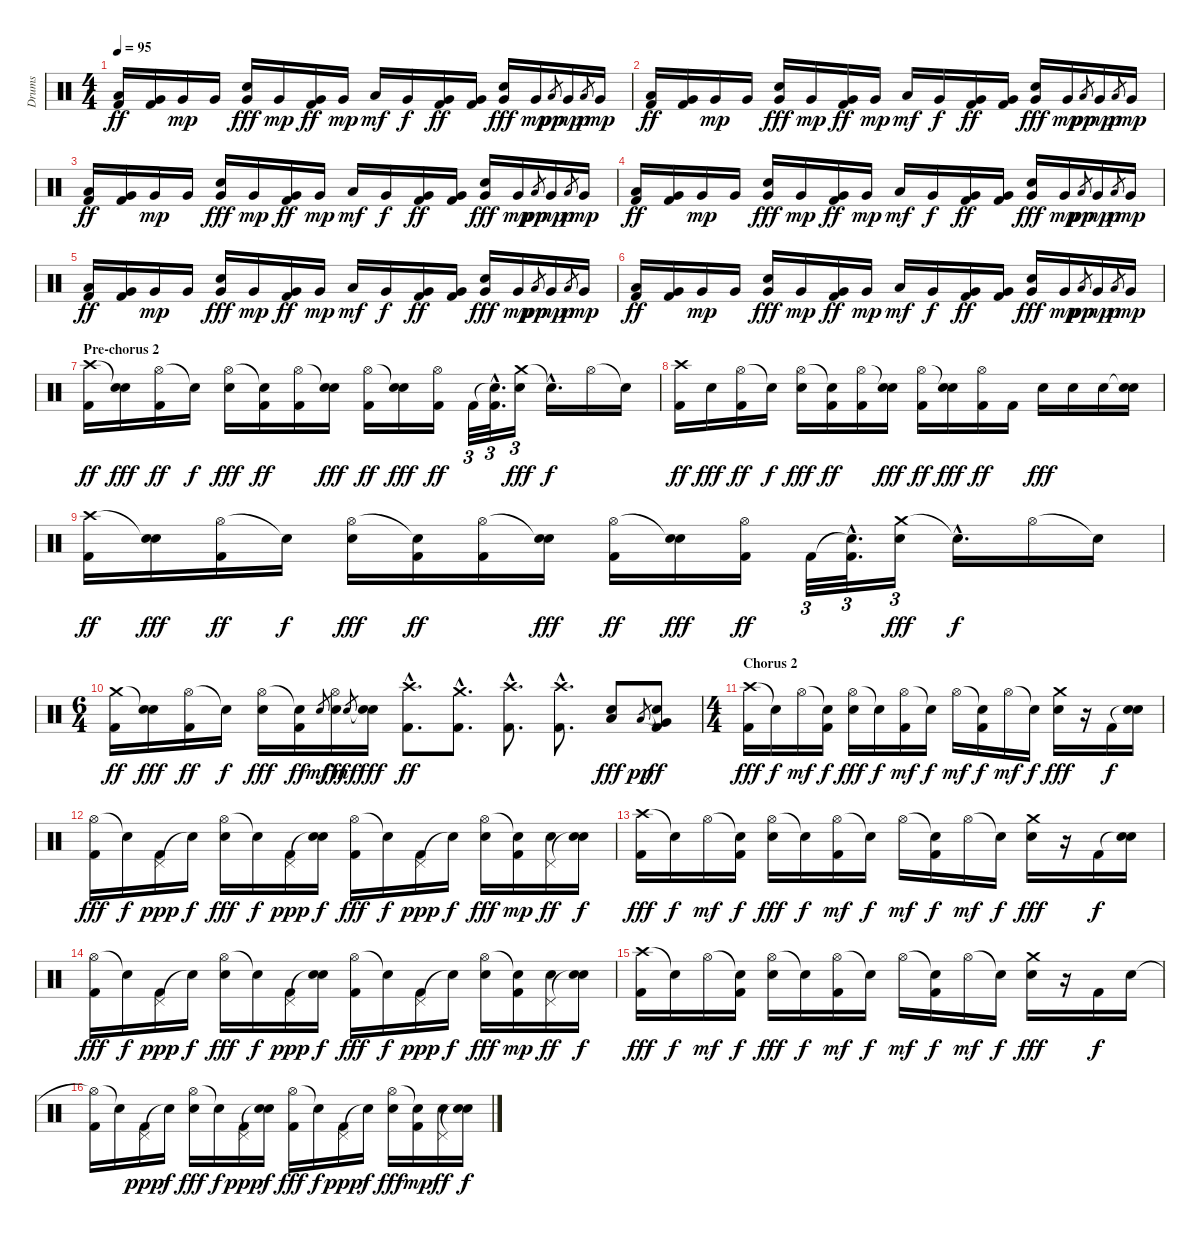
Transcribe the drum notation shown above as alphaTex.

\track ("Drums" "Drums") {instrument percussion}
\staff {score}
\articulation defaults
\ts (4 4)
\tempo 95
\clef neutral
\ks c
("Low Tom (hit)" "Kick (hit) 2").16{dy ff} ("Very Low Tom (hit)" "Kick (hit) 2").16 "Very Low Tom (hit)".16{dy mp} "Very Low Tom (hit)".16 ("Very Low Tom (hit)" "Electric Snare (hit)").16{dy fff} "Very Low Tom (hit)".16{dy mp} ("Very Low Tom (hit)" "Kick (hit) 2").16{dy ff} "Very Low Tom (hit)".16{dy mp} "Low Tom (hit)".16{dy mf} "Very Low Tom (hit)".16{dy f} ("Very Low Tom (hit)" "Kick (hit) 2").16{dy ff} ("Very Low Tom (hit)" "Kick (hit) 2").16 ("Very Low Tom (hit)" "Electric Snare (hit)").16{dy fff} "Very Low Tom (hit)".16{dy mp} "Low Tom (hit)".8{gr dy pp} "Very Low Tom (hit)".16{dy mp} "Low Tom (hit)".8{gr dy p} "Very Low Tom (hit)".16{dy mp} |
("Low Tom (hit)" "Kick (hit) 2").16{dy ff} ("Very Low Tom (hit)" "Kick (hit) 2").16 "Very Low Tom (hit)".16{dy mp} "Very Low Tom (hit)".16 ("Very Low Tom (hit)" "Electric Snare (hit)").16{dy fff} "Very Low Tom (hit)".16{dy mp} ("Very Low Tom (hit)" "Kick (hit) 2").16{dy ff} "Very Low Tom (hit)".16{dy mp} "Low Tom (hit)".16{dy mf} "Very Low Tom (hit)".16{dy f} ("Very Low Tom (hit)" "Kick (hit) 2").16{dy ff} ("Very Low Tom (hit)" "Kick (hit) 2").16 ("Very Low Tom (hit)" "Electric Snare (hit)").16{dy fff} "Very Low Tom (hit)".16{dy mp} "Low Tom (hit)".8{gr dy pp} "Very Low Tom (hit)".16{dy mp} "Low Tom (hit)".8{gr dy p} "Very Low Tom (hit)".16{dy mp} |
("Low Tom (hit)" "Kick (hit) 2").16{dy ff} ("Very Low Tom (hit)" "Kick (hit) 2").16 "Very Low Tom (hit)".16{dy mp} "Very Low Tom (hit)".16 ("Very Low Tom (hit)" "Electric Snare (hit)").16{dy fff} "Very Low Tom (hit)".16{dy mp} ("Very Low Tom (hit)" "Kick (hit) 2").16{dy ff} "Very Low Tom (hit)".16{dy mp} "Low Tom (hit)".16{dy mf} "Very Low Tom (hit)".16{dy f} ("Very Low Tom (hit)" "Kick (hit) 2").16{dy ff} ("Very Low Tom (hit)" "Kick (hit) 2").16 ("Very Low Tom (hit)" "Electric Snare (hit)").16{dy fff} "Very Low Tom (hit)".16{dy mp} "Low Tom (hit)".8{gr dy pp} "Very Low Tom (hit)".16{dy mp} "Low Tom (hit)".8{gr dy p} "Very Low Tom (hit)".16{dy mp} |
("Low Tom (hit)" "Kick (hit) 2").16{dy ff} ("Very Low Tom (hit)" "Kick (hit) 2").16 "Very Low Tom (hit)".16{dy mp} "Very Low Tom (hit)".16 ("Very Low Tom (hit)" "Electric Snare (hit)").16{dy fff} "Very Low Tom (hit)".16{dy mp} ("Very Low Tom (hit)" "Kick (hit) 2").16{dy ff} "Very Low Tom (hit)".16{dy mp} "Low Tom (hit)".16{dy mf} "Very Low Tom (hit)".16{dy f} ("Very Low Tom (hit)" "Kick (hit) 2").16{dy ff} ("Very Low Tom (hit)" "Kick (hit) 2").16 ("Very Low Tom (hit)" "Electric Snare (hit)").16{dy fff} "Very Low Tom (hit)".16{dy mp} "Low Tom (hit)".8{gr dy pp} "Very Low Tom (hit)".16{dy mp} "Low Tom (hit)".8{gr dy p} "Very Low Tom (hit)".16{dy mp} |
("Low Tom (hit)" "Kick (hit) 2").16{dy ff} ("Very Low Tom (hit)" "Kick (hit) 2").16 "Very Low Tom (hit)".16{dy mp} "Very Low Tom (hit)".16 ("Very Low Tom (hit)" "Electric Snare (hit)").16{dy fff} "Very Low Tom (hit)".16{dy mp} ("Very Low Tom (hit)" "Kick (hit) 2").16{dy ff} "Very Low Tom (hit)".16{dy mp} "Low Tom (hit)".16{dy mf} "Very Low Tom (hit)".16{dy f} ("Very Low Tom (hit)" "Kick (hit) 2").16{dy ff} ("Very Low Tom (hit)" "Kick (hit) 2").16 ("Very Low Tom (hit)" "Electric Snare (hit)").16{dy fff} "Very Low Tom (hit)".16{dy mp} "Low Tom (hit)".8{gr dy pp} "Very Low Tom (hit)".16{dy mp} "Low Tom (hit)".8{gr dy p} "Very Low Tom (hit)".16{dy mp} |
("Low Tom (hit)" "Kick (hit) 2").16{dy ff} ("Very Low Tom (hit)" "Kick (hit) 2").16 "Very Low Tom (hit)".16{dy mp} "Very Low Tom (hit)".16 ("Very Low Tom (hit)" "Electric Snare (hit)").16{dy fff} "Very Low Tom (hit)".16{dy mp} ("Very Low Tom (hit)" "Kick (hit) 2").16{dy ff} "Very Low Tom (hit)".16{dy mp} "Low Tom (hit)".16{dy mf} "Very Low Tom (hit)".16{dy f} ("Very Low Tom (hit)" "Kick (hit) 2").16{dy ff} ("Very Low Tom (hit)" "Kick (hit) 2").16 ("Very Low Tom (hit)" "Electric Snare (hit)").16{dy fff} "Very Low Tom (hit)".16{dy mp} "Low Tom (hit)".8{gr dy pp} "Very Low Tom (hit)".16{dy mp} "Low Tom (hit)".8{gr dy p} "Very Low Tom (hit)".16{dy mp} |
\section ("" "Pre-chorus 2")
("Crash high (hit)" "Kick (hit) 2").16{dy ff} ("Snare (hit)"{t} "Electric Snare (hit)").16{dy fff} ("Hi-Hat (open)" "Kick (hit) 2").16{dy ff} "Snare (hit)"{t}.16{dy f} ("Hi-Hat (open)" "Electric Snare (hit)").16{dy fff} ("Snare (hit)"{t} "Kick (hit) 2").16{dy ff} ("Hi-Hat (open)" "Kick (hit) 2").16 ("Snare (hit)"{t} "Electric Snare (hit)").16{dy fff} ("Hi-Hat (open)" "Kick (hit) 2").16{dy ff} ("Snare (hit)"{t} "Electric Snare (hit)").16{dy fff} ("Hi-Hat (open)" "Kick (hit) 2").16{dy ff} "Kick (hit) 2".32{tu (3 2)} ("Snare (hit)"{hac t} "Kick (hit) 2"{hac}).32{d tu (3 2)} ("Crash medium (hit)" "Electric Snare (hit)").16{tu (3 2) dy fff} "Snare (hit)"{hac t}.16{d dy f} "Hi-Hat (open)".16 "Snare (hit)"{t}.16 |
("Crash high (hit)" "Kick (hit) 2").16{dy ff} "Electric Snare (hit)".16{dy fff} ("Hi-Hat (open)" "Kick (hit) 2").16{dy ff} "Snare (hit)"{t}.16{dy f} ("Hi-Hat (open)" "Electric Snare (hit)").16{dy fff} ("Snare (hit)"{t} "Kick (hit) 2").16{dy ff} ("Hi-Hat (open)" "Kick (hit) 2").16 ("Snare (hit)"{t} "Electric Snare (hit)").16{dy fff} ("Hi-Hat (open)" "Kick (hit) 2").16{dy ff} ("Snare (hit)"{t} "Electric Snare (hit)").16{dy fff} ("Hi-Hat (open)" "Kick (hit) 2").16{dy ff} "Kick (hit) 2".16 "Electric Snare (hit)".16{dy fff} "Electric Snare (hit)".16 "Electric Snare (hit)".16 ("Snare (hit)"{t} "Electric Snare (hit)").16 |
("Crash high (hit)" "Kick (hit) 2").16{dy ff} ("Snare (hit)"{t} "Electric Snare (hit)").16{dy fff} ("Hi-Hat (open)" "Kick (hit) 2").16{dy ff} "Snare (hit)"{t}.16{dy f} ("Hi-Hat (open)" "Electric Snare (hit)").16{dy fff} ("Snare (hit)"{t} "Kick (hit) 2").16{dy ff} ("Hi-Hat (open)" "Kick (hit) 2").16 ("Snare (hit)"{t} "Electric Snare (hit)").16{dy fff} ("Hi-Hat (open)" "Kick (hit) 2").16{dy ff} ("Snare (hit)"{t} "Electric Snare (hit)").16{dy fff} ("Hi-Hat (open)" "Kick (hit) 2").16{dy ff} "Kick (hit) 2".32{tu (3 2)} ("Snare (hit)"{hac t} "Kick (hit) 2"{hac}).32{d tu (3 2)} ("Crash medium (hit)" "Electric Snare (hit)").16{tu (3 2) dy fff} "Snare (hit)"{hac t}.16{d dy f} "Hi-Hat (open)".16 "Snare (hit)"{t}.16 |
\ts (6 4)
("Crash medium (hit)" "Kick (hit) 2").16{dy ff} ("Snare (hit)"{t} "Electric Snare (hit)").16{dy fff} ("Hi-Hat (open)" "Kick (hit) 2").16{dy ff} "Snare (hit)"{t}.16{dy f} ("Hi-Hat (open)" "Electric Snare (hit)").16{dy fff} ("Snare (hit)"{t} "Kick (hit) 2").16{dy ff} "Electric Snare (hit)".8{gr dy mf} ("Hi-Hat (open)" "Electric Snare (hit)").16{dy fff} "Electric Snare (hit)".8{gr dy mf} ("Snare (hit)"{t} "Electric Snare (hit)").16{dy fff} ("Crash high (hit)"{hac} "Kick (hit) 2"{hac}).8{d dy ff} ("Crash medium (hit)"{hac} "Kick (hit) 2"{hac}).8{d} ("Crash high (hit)"{hac} "Kick (hit) 2"{hac}).8{d} ("Crash high (hit)"{hac} "Kick (hit) 2"{hac}).8{d} ("Low Tom (hit)" "Electric Snare (hit)").8{dy fff} "Low Tom (hit)".8{gr dy pp} ("Snare (hit)"{t} "Very Low Tom (hit)" "Kick (hit) 2").8{dy ff} |
\ts (4 4)
\section ("" "Chorus 2")
("Crash high (hit)" "Kick (hit) 2").16{dy fff} "Snare (hit)"{t}.16{dy f} "Hi-Hat (open)".16{dy mf} ("Snare (hit)"{t} "Kick (hit) 2").16{dy f} ("Hi-Hat (open)" "Electric Snare (hit)").16{dy fff} "Snare (hit)"{t}.16{dy f} ("Hi-Hat (open)" "Kick (hit) 2").16{dy mf} "Snare (hit)"{t}.16{dy f} "Hi-Hat (open)".16{dy mf} ("Snare (hit)"{t} "Kick (hit) 2").16{dy f} "Hi-Hat (open)".16{dy mf} "Snare (hit)"{t}.16{dy f} ("Crash medium (hit)" "Electric Snare (hit)").16{dy fff} r.16 "Kick (hit) 2".16{dy f} ("Snare (hit)"{t} "Electric Snare (hit)").16 |
("Hi-Hat (open)" "Kick (hit) 2").16{dy fff} "Snare (hit)"{t}.16{dy f} ("Pedal Hi-Hat (hit)" "Kick (hit) 2").16{dy ppp} "Snare (hit)"{t}.16{dy f} ("Hi-Hat (open)" "Electric Snare (hit)").16{dy fff} "Snare (hit)"{t}.16{dy f} ("Pedal Hi-Hat (hit)" "Kick (hit) 2").16{dy ppp} ("Snare (hit)"{t} "Electric Snare (hit)").16{dy f} ("Hi-Hat (open)" "Kick (hit) 2").16{dy fff} "Snare (hit)"{t}.16{dy f} ("Pedal Hi-Hat (hit)" "Kick (hit) 2").16{dy ppp} "Snare (hit)"{t}.16{dy f} ("Hi-Hat (open)" "Electric Snare (hit)").16{dy fff} ("Snare (hit)"{t} "Kick (hit) 2").16{dy mp} ("Pedal Hi-Hat (hit)" "Electric Snare (hit)").16{dy ff} ("Snare (hit)"{t} "Electric Snare (hit)").16{dy f} |
("Crash high (hit)" "Kick (hit) 2").16{dy fff} "Snare (hit)"{t}.16{dy f} "Hi-Hat (open)".16{dy mf} ("Snare (hit)"{t} "Kick (hit) 2").16{dy f} ("Hi-Hat (open)" "Electric Snare (hit)").16{dy fff} "Snare (hit)"{t}.16{dy f} ("Hi-Hat (open)" "Kick (hit) 2").16{dy mf} "Snare (hit)"{t}.16{dy f} "Hi-Hat (open)".16{dy mf} ("Snare (hit)"{t} "Kick (hit) 2").16{dy f} "Hi-Hat (open)".16{dy mf} "Snare (hit)"{t}.16{dy f} ("Crash medium (hit)" "Electric Snare (hit)").16{dy fff} r.16 "Kick (hit) 2".16{dy f} ("Snare (hit)"{t} "Electric Snare (hit)").16 |
("Hi-Hat (open)" "Kick (hit) 2").16{dy fff} "Snare (hit)"{t}.16{dy f} ("Pedal Hi-Hat (hit)" "Kick (hit) 2").16{dy ppp} "Snare (hit)"{t}.16{dy f} ("Hi-Hat (open)" "Electric Snare (hit)").16{dy fff} "Snare (hit)"{t}.16{dy f} ("Pedal Hi-Hat (hit)" "Kick (hit) 2").16{dy ppp} ("Snare (hit)"{t} "Electric Snare (hit)").16{dy f} ("Hi-Hat (open)" "Kick (hit) 2").16{dy fff} "Snare (hit)"{t}.16{dy f} ("Pedal Hi-Hat (hit)" "Kick (hit) 2").16{dy ppp} "Snare (hit)"{t}.16{dy f} ("Hi-Hat (open)" "Electric Snare (hit)").16{dy fff} ("Snare (hit)"{t} "Kick (hit) 2").16{dy mp} ("Pedal Hi-Hat (hit)" "Electric Snare (hit)").16{dy ff} ("Snare (hit)"{t} "Electric Snare (hit)").16{dy f} |
("Crash high (hit)" "Kick (hit) 2").16{dy fff} "Snare (hit)"{t}.16{dy f} "Hi-Hat (open)".16{dy mf} ("Snare (hit)"{t} "Kick (hit) 2").16{dy f} ("Hi-Hat (open)" "Electric Snare (hit)").16{dy fff} "Snare (hit)"{t}.16{dy f} ("Hi-Hat (open)" "Kick (hit) 2").16{dy mf} "Snare (hit)"{t}.16{dy f} "Hi-Hat (open)".16{dy mf} ("Snare (hit)"{t} "Kick (hit) 2").16{dy f} "Hi-Hat (open)".16{dy mf} "Snare (hit)"{t}.16{dy f} ("Crash medium (hit)" "Electric Snare (hit)").16{dy fff} r.16 "Kick (hit) 2".16{dy f} "Electric Snare (hit)".16 |
("Hi-Hat (open)"{t} "Kick (hit) 2").16 "Snare (hit)"{t}.16 ("Pedal Hi-Hat (hit)" "Kick (hit) 2").16{dy ppp} "Snare (hit)"{t}.16{dy f} ("Hi-Hat (open)" "Electric Snare (hit)").16{dy fff} "Snare (hit)"{t}.16{dy f} ("Pedal Hi-Hat (hit)" "Kick (hit) 2").16{dy ppp} ("Snare (hit)"{t} "Electric Snare (hit)").16{dy f} ("Hi-Hat (open)" "Kick (hit) 2").16{dy fff} "Snare (hit)"{t}.16{dy f} ("Pedal Hi-Hat (hit)" "Kick (hit) 2").16{dy ppp} "Snare (hit)"{t}.16{dy f} ("Hi-Hat (open)" "Electric Snare (hit)").16{dy fff} ("Snare (hit)"{t} "Kick (hit) 2").16{dy mp} ("Pedal Hi-Hat (hit)" "Electric Snare (hit)").16{dy ff} ("Snare (hit)"{t} "Electric Snare (hit)").16{dy f}
